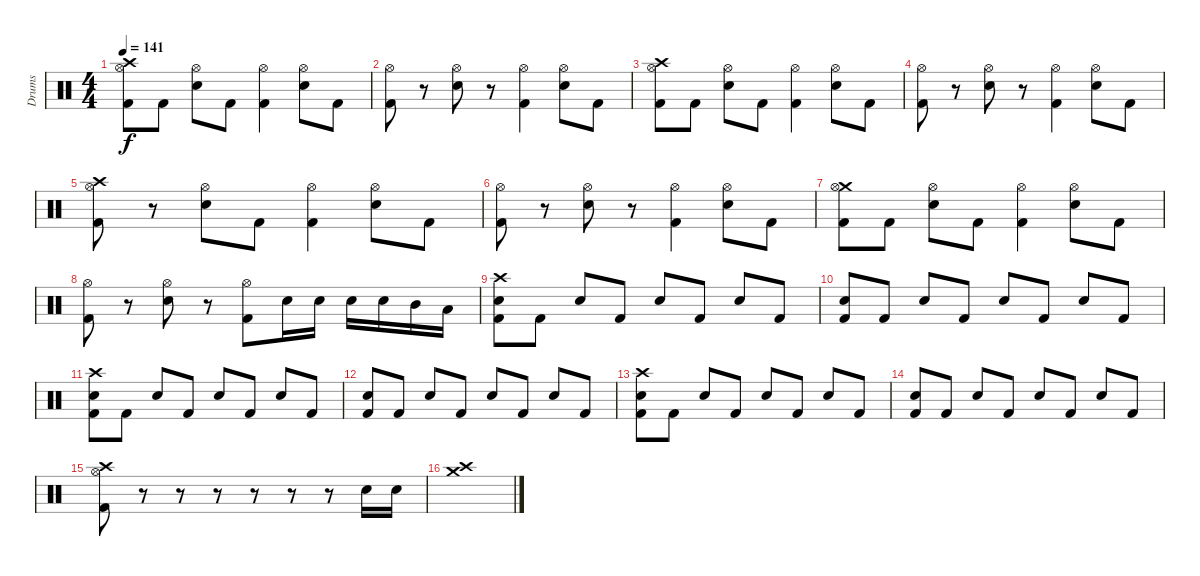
\track ("Drums" "Drums") {instrument percussion}
\staff {score}
\articulation defaults
\ts (4 4)
\tempo 141
\clef neutral
\ks c
("Crash high (hit)" "Hi-Hat (open)" "Kick (hit) 2").8{dy f} "Kick (hit) 2".8 ("Hi-Hat (open)" "Electric Snare (hit)").8 "Kick (hit) 2".8 ("Hi-Hat (open)" "Kick (hit) 2").4 ("Hi-Hat (open)" "Electric Snare (hit)").8 "Kick (hit) 2".8 |
("Hi-Hat (open)" "Kick (hit) 2").8 r.8 ("Hi-Hat (open)" "Electric Snare (hit)").8 r.8 ("Hi-Hat (open)" "Kick (hit) 2").4 ("Hi-Hat (open)" "Electric Snare (hit)").8 "Kick (hit) 2".8 |
("Crash high (hit)" "Hi-Hat (open)" "Kick (hit) 2").8 "Kick (hit) 2".8 ("Hi-Hat (open)" "Electric Snare (hit)").8 "Kick (hit) 2".8 ("Hi-Hat (open)" "Kick (hit) 2").4 ("Hi-Hat (open)" "Electric Snare (hit)").8 "Kick (hit) 2".8 |
("Hi-Hat (open)" "Kick (hit) 2").8 r.8 ("Hi-Hat (open)" "Electric Snare (hit)").8 r.8 ("Hi-Hat (open)" "Kick (hit) 2").4 ("Hi-Hat (open)" "Electric Snare (hit)").8 "Kick (hit) 2".8 |
("Crash high (hit)" "Hi-Hat (open)" "Kick (hit) 2").8 r.8 ("Hi-Hat (open)" "Electric Snare (hit)").8 "Kick (hit) 2".8 ("Hi-Hat (open)" "Kick (hit) 2").4 ("Hi-Hat (open)" "Electric Snare (hit)").8 "Kick (hit) 2".8 |
("Hi-Hat (open)" "Kick (hit) 2").8 r.8 ("Hi-Hat (open)" "Electric Snare (hit)").8 r.8 ("Hi-Hat (open)" "Kick (hit) 2").4 ("Hi-Hat (open)" "Electric Snare (hit)").8 "Kick (hit) 2".8 |
("Crash medium (hit)" "Hi-Hat (open)" "Kick (hit) 2").8 "Kick (hit) 2".8 ("Hi-Hat (open)" "Electric Snare (hit)").8 "Kick (hit) 2".8 ("Hi-Hat (open)" "Kick (hit) 2").4 ("Hi-Hat (open)" "Electric Snare (hit)").8 "Kick (hit) 2".8 |
("Hi-Hat (open)" "Kick (hit) 2").8 r.8 ("Hi-Hat (open)" "Electric Snare (hit)").8 r.8 ("Hi-Hat (open)" "Kick (hit) 2").8 "Electric Snare (hit)".16 "Electric Snare (hit)".16 "Electric Snare (hit)".16 "Electric Snare (hit)".16 "Mid Tom (hit)".16 "Low Tom (hit)".16 |
("Crash high (hit)" "Electric Snare (hit)" "Kick (hit) 2").8 "Kick (hit) 2".8 "Electric Snare (hit)".8 "Kick (hit) 2".8 "Electric Snare (hit)".8 "Kick (hit) 2".8 "Electric Snare (hit)".8 "Kick (hit) 2".8 |
("Electric Snare (hit)" "Kick (hit) 2").8 "Kick (hit) 2".8 "Electric Snare (hit)".8 "Kick (hit) 2".8 "Electric Snare (hit)".8 "Kick (hit) 2".8 "Electric Snare (hit)".8 "Kick (hit) 2".8 |
("Crash high (hit)" "Electric Snare (hit)" "Kick (hit) 2").8 "Kick (hit) 2".8 "Electric Snare (hit)".8 "Kick (hit) 2".8 "Electric Snare (hit)".8 "Kick (hit) 2".8 "Electric Snare (hit)".8 "Kick (hit) 2".8 |
("Electric Snare (hit)" "Kick (hit) 2").8 "Kick (hit) 2".8 "Electric Snare (hit)".8 "Kick (hit) 2".8 "Electric Snare (hit)".8 "Kick (hit) 2".8 "Electric Snare (hit)".8 "Kick (hit) 2".8 |
("Crash high (hit)" "Electric Snare (hit)" "Kick (hit) 2").8 "Kick (hit) 2".8 "Electric Snare (hit)".8 "Kick (hit) 2".8 "Electric Snare (hit)".8 "Kick (hit) 2".8 "Electric Snare (hit)".8 "Kick (hit) 2".8 |
("Electric Snare (hit)" "Kick (hit) 2").8 "Kick (hit) 2".8 "Electric Snare (hit)".8 "Kick (hit) 2".8 "Electric Snare (hit)".8 "Kick (hit) 2".8 "Electric Snare (hit)".8 "Kick (hit) 2".8 |
("Crash high (hit)" "Hi-Hat (open)" "Kick (hit) 2").8 r.8 r.8 r.8 r.8 r.8 r.8 "Electric Snare (hit)".16 "Electric Snare (hit)".16 |
("Crash high (hit)" "Crash medium (hit)").1
